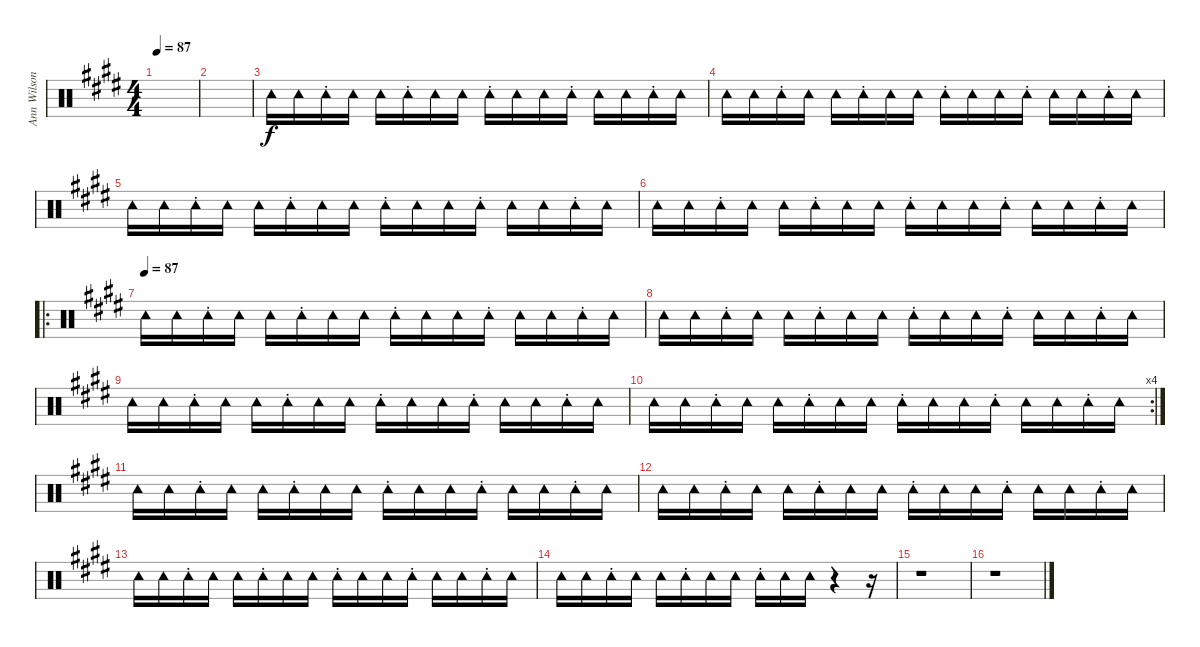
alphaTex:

\track ("Ann Wilson Tambrine" "Ann Wilson") {instrument percussion}
\staff {score}
\articulation defaults
\ts (4 4)
\tempo 87
\clef neutral
\ks e
|
|
"Tambourine (hit)".16 "Tambourine (hit)".16 "Tambourine (hit)"{st}.16 "Tambourine (hit)".16 "Tambourine (hit)".16 "Tambourine (hit)"{st}.16 "Tambourine (hit)".16 "Tambourine (hit)".16 "Tambourine (hit)"{st}.16 "Tambourine (hit)".16 "Tambourine (hit)".16 "Tambourine (hit)"{st}.16 "Tambourine (hit)".16 "Tambourine (hit)".16 "Tambourine (hit)"{st}.16 "Tambourine (hit)".16 |
"Tambourine (hit)".16 "Tambourine (hit)".16 "Tambourine (hit)"{st}.16 "Tambourine (hit)".16 "Tambourine (hit)".16 "Tambourine (hit)"{st}.16 "Tambourine (hit)".16 "Tambourine (hit)".16 "Tambourine (hit)"{st}.16 "Tambourine (hit)".16 "Tambourine (hit)".16 "Tambourine (hit)"{st}.16 "Tambourine (hit)".16 "Tambourine (hit)".16 "Tambourine (hit)"{st}.16 "Tambourine (hit)".16 |
"Tambourine (hit)".16 "Tambourine (hit)".16 "Tambourine (hit)"{st}.16 "Tambourine (hit)".16 "Tambourine (hit)".16 "Tambourine (hit)"{st}.16 "Tambourine (hit)".16 "Tambourine (hit)".16 "Tambourine (hit)"{st}.16 "Tambourine (hit)".16 "Tambourine (hit)".16 "Tambourine (hit)"{st}.16 "Tambourine (hit)".16 "Tambourine (hit)".16 "Tambourine (hit)"{st}.16 "Tambourine (hit)".16 |
"Tambourine (hit)".16 "Tambourine (hit)".16 "Tambourine (hit)"{st}.16 "Tambourine (hit)".16 "Tambourine (hit)".16 "Tambourine (hit)"{st}.16 "Tambourine (hit)".16 "Tambourine (hit)".16 "Tambourine (hit)"{st}.16 "Tambourine (hit)".16 "Tambourine (hit)".16 "Tambourine (hit)"{st}.16 "Tambourine (hit)".16 "Tambourine (hit)".16 "Tambourine (hit)"{st}.16 "Tambourine (hit)".16 |
\ro
\tempo (87)
"Tambourine (hit)".16 "Tambourine (hit)".16 "Tambourine (hit)"{st}.16 "Tambourine (hit)".16 "Tambourine (hit)".16 "Tambourine (hit)"{st}.16 "Tambourine (hit)".16 "Tambourine (hit)".16 "Tambourine (hit)"{st}.16 "Tambourine (hit)".16 "Tambourine (hit)".16 "Tambourine (hit)"{st}.16 "Tambourine (hit)".16 "Tambourine (hit)".16 "Tambourine (hit)"{st}.16 "Tambourine (hit)".16 |
"Tambourine (hit)".16 "Tambourine (hit)".16 "Tambourine (hit)"{st}.16 "Tambourine (hit)".16 "Tambourine (hit)".16 "Tambourine (hit)"{st}.16 "Tambourine (hit)".16 "Tambourine (hit)".16 "Tambourine (hit)"{st}.16 "Tambourine (hit)".16 "Tambourine (hit)".16 "Tambourine (hit)"{st}.16 "Tambourine (hit)".16 "Tambourine (hit)".16 "Tambourine (hit)"{st}.16 "Tambourine (hit)".16 |
"Tambourine (hit)".16 "Tambourine (hit)".16 "Tambourine (hit)"{st}.16 "Tambourine (hit)".16 "Tambourine (hit)".16 "Tambourine (hit)"{st}.16 "Tambourine (hit)".16 "Tambourine (hit)".16 "Tambourine (hit)"{st}.16 "Tambourine (hit)".16 "Tambourine (hit)".16 "Tambourine (hit)"{st}.16 "Tambourine (hit)".16 "Tambourine (hit)".16 "Tambourine (hit)"{st}.16 "Tambourine (hit)".16 |
\rc 4 "Tambourine (hit)".16 "Tambourine (hit)".16 "Tambourine (hit)"{st}.16 "Tambourine (hit)".16 "Tambourine (hit)".16 "Tambourine (hit)"{st}.16 "Tambourine (hit)".16 "Tambourine (hit)".16 "Tambourine (hit)"{st}.16 "Tambourine (hit)".16 "Tambourine (hit)".16 "Tambourine (hit)"{st}.16 "Tambourine (hit)".16 "Tambourine (hit)".16 "Tambourine (hit)"{st}.16 "Tambourine (hit)".16
|
"Tambourine (hit)".16 "Tambourine (hit)".16 "Tambourine (hit)"{st}.16 "Tambourine (hit)".16 "Tambourine (hit)".16 "Tambourine (hit)"{st}.16 "Tambourine (hit)".16 "Tambourine (hit)".16 "Tambourine (hit)"{st}.16 "Tambourine (hit)".16 "Tambourine (hit)".16 "Tambourine (hit)"{st}.16 "Tambourine (hit)".16 "Tambourine (hit)".16 "Tambourine (hit)"{st}.16 "Tambourine (hit)".16 |
"Tambourine (hit)".16 "Tambourine (hit)".16 "Tambourine (hit)"{st}.16 "Tambourine (hit)".16 "Tambourine (hit)".16 "Tambourine (hit)"{st}.16 "Tambourine (hit)".16 "Tambourine (hit)".16 "Tambourine (hit)"{st}.16 "Tambourine (hit)".16 "Tambourine (hit)".16 "Tambourine (hit)"{st}.16 "Tambourine (hit)".16 "Tambourine (hit)".16 "Tambourine (hit)"{st}.16 "Tambourine (hit)".16 |
"Tambourine (hit)".16 "Tambourine (hit)".16 "Tambourine (hit)"{st}.16 "Tambourine (hit)".16 "Tambourine (hit)".16 "Tambourine (hit)"{st}.16 "Tambourine (hit)".16 "Tambourine (hit)".16 "Tambourine (hit)"{st}.16 "Tambourine (hit)".16 "Tambourine (hit)".16 "Tambourine (hit)"{st}.16 "Tambourine (hit)".16 "Tambourine (hit)".16 "Tambourine (hit)"{st}.16 "Tambourine (hit)".16 |
"Tambourine (hit)".16 "Tambourine (hit)".16 "Tambourine (hit)"{st}.16 "Tambourine (hit)".16 "Tambourine (hit)".16 "Tambourine (hit)"{st}.16 "Tambourine (hit)".16 "Tambourine (hit)".16 "Tambourine (hit)"{st}.16 "Tambourine (hit)".16 "Tambourine (hit)".16 r.4 r.16 |
r.1 |
r.1
